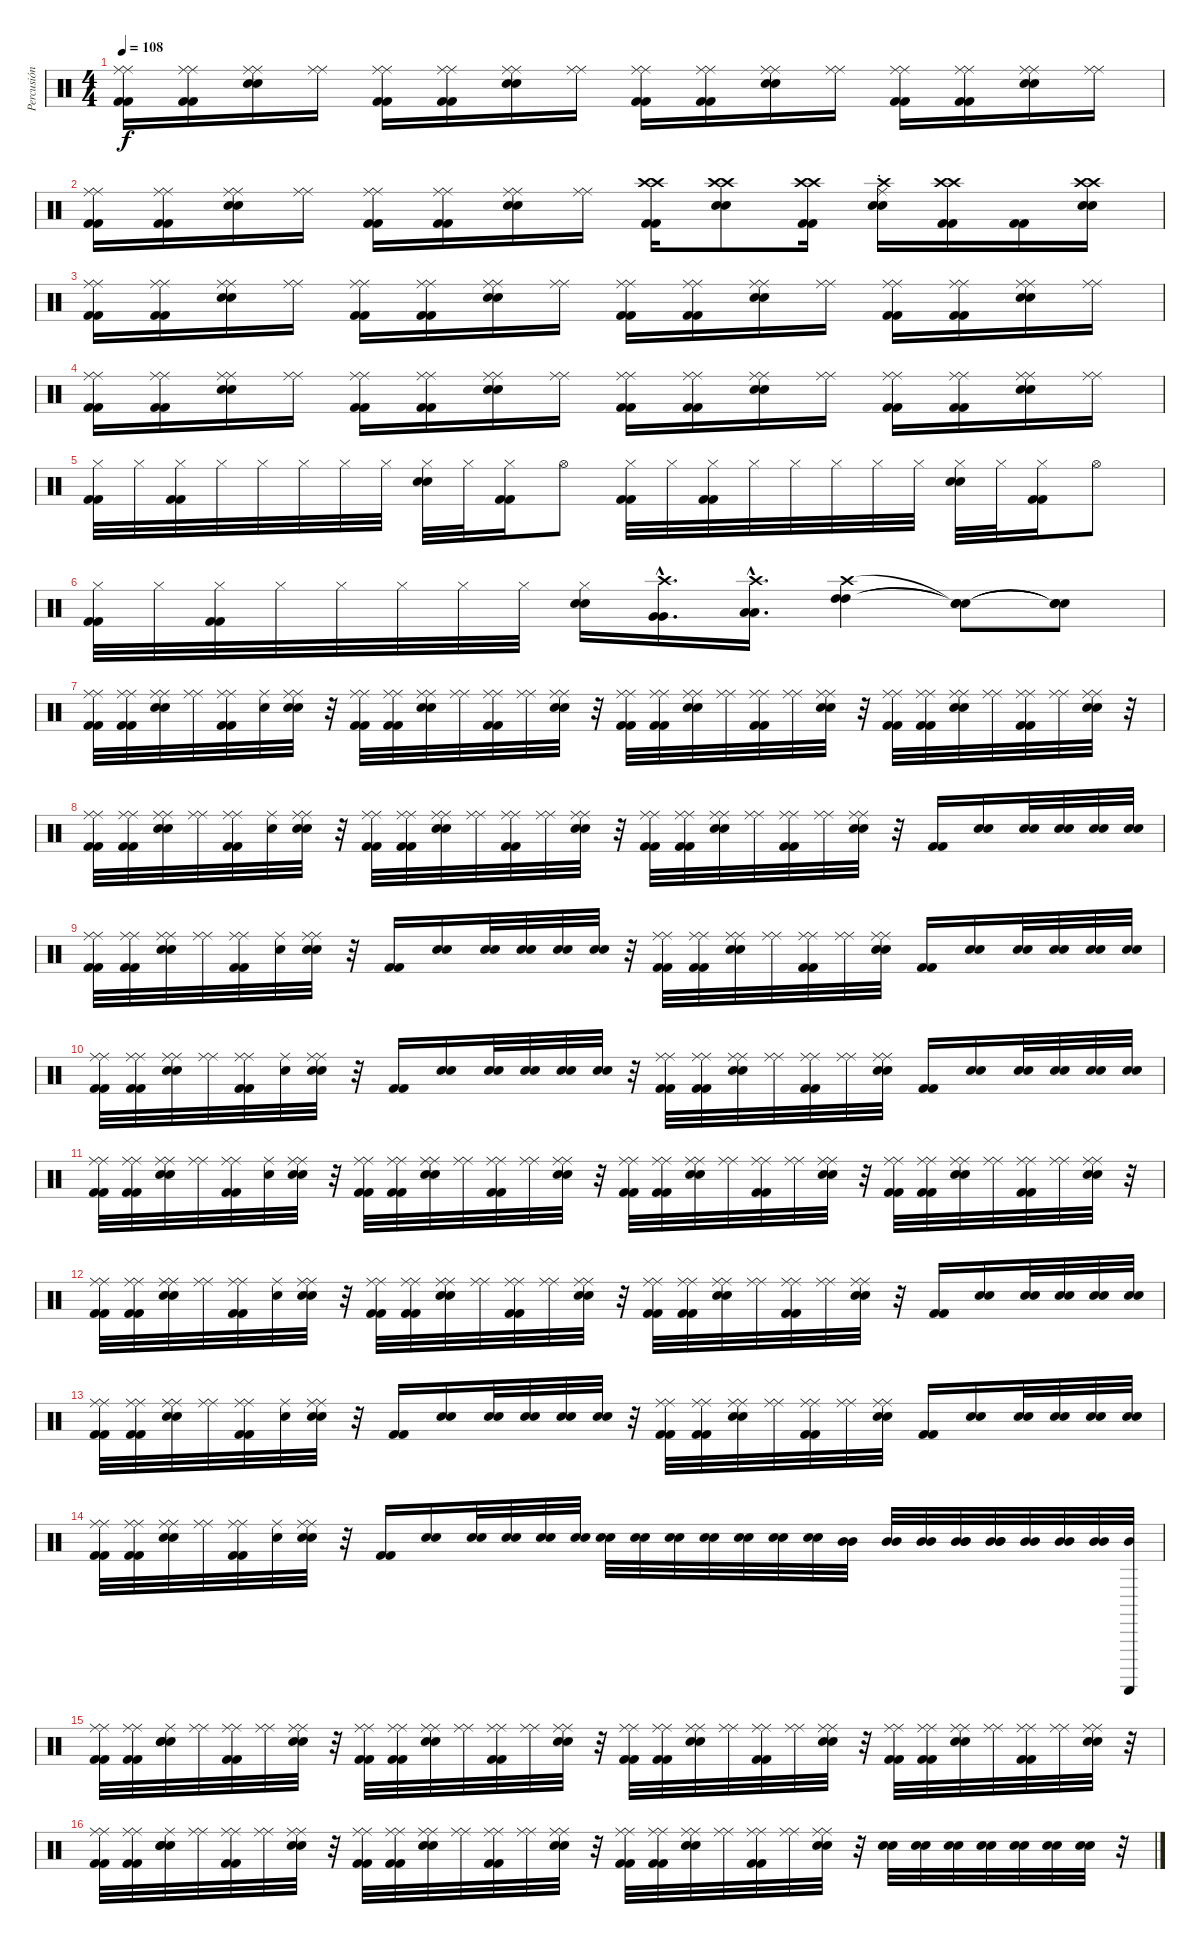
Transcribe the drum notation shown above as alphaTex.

\track ("Percusión" "Percusión") {instrument percussion}
\staff {score}
\articulation defaults
\ts (4 4)
\tempo 108
\clef neutral
\ks c
("Kick (hit) 2" "Kick (hit) 2" "Ride (middle)" "Ride (middle)").16{dy f} ("Kick (hit) 2" "Kick (hit) 2" "Ride (middle)" "Ride (middle)").16 ("Snare (hit) 2" "Snare (hit) 2" "Ride (middle)" "Ride (middle)").16 ("Ride (middle)" "Ride (middle)").16 ("Kick (hit) 2" "Kick (hit) 2" "Ride (middle)" "Ride (middle)").16 ("Kick (hit) 2" "Kick (hit) 2" "Ride (middle)" "Ride (middle)").16 ("Snare (hit) 2" "Snare (hit) 2" "Ride (middle)" "Ride (middle)").16 ("Ride (middle)" "Ride (middle)").16 ("Kick (hit) 2" "Kick (hit) 2" "Ride (middle)" "Ride (middle)").16 ("Kick (hit) 2" "Kick (hit) 2" "Ride (middle)" "Ride (middle)").16 ("Snare (hit) 2" "Snare (hit) 2" "Ride (middle)" "Ride (middle)").16 ("Ride (middle)" "Ride (middle)").16 ("Kick (hit) 2" "Kick (hit) 2" "Ride (middle)" "Ride (middle)").16 ("Kick (hit) 2" "Kick (hit) 2" "Ride (middle)" "Ride (middle)").16 ("Snare (hit) 2" "Snare (hit) 2" "Ride (middle)" "Ride (middle)").16 ("Ride (middle)" "Ride (middle)").16 |
("Kick (hit) 2" "Kick (hit) 2" "Ride (middle)" "Ride (middle)").16 ("Kick (hit) 2" "Kick (hit) 2" "Ride (middle)" "Ride (middle)").16 ("Snare (hit) 2" "Snare (hit) 2" "Ride (middle)" "Ride (middle)").16 ("Ride (middle)" "Ride (middle)").16 ("Kick (hit) 2" "Kick (hit) 2" "Ride (middle)" "Ride (middle)").16 ("Kick (hit) 2" "Kick (hit) 2" "Ride (middle)" "Ride (middle)").16 ("Snare (hit) 2" "Snare (hit) 2" "Ride (middle)" "Ride (middle)").16 ("Ride (middle)" "Ride (middle)").16 ("Kick (hit) 2" "Kick (hit) 2" "Crash high (hit)" "Crash high (hit)").16 ("Snare (hit) 2" "Snare (hit) 2" "Crash high (hit)" "Crash high (hit)").8 ("Kick (hit) 2" "Kick (hit) 2" "Crash high (hit)" "Crash high (hit)").16 ("Snare (hit) 2" "Snare (hit) 2" "Ride (choke)" "Crash high (hit)").16 ("Kick (hit) 2" "Kick (hit) 2" "Crash high (hit)" "Crash high (hit)").16 ("Kick (hit) 2" "Kick (hit) 2").16 ("Snare (hit) 2" "Snare (hit) 2" "Crash high (hit)" "Crash high (hit)").16 |
("Kick (hit) 2" "Kick (hit) 2" "Ride (middle)" "Ride (middle)").16 ("Kick (hit) 2" "Kick (hit) 2" "Ride (middle)" "Ride (middle)").16 ("Snare (hit) 2" "Snare (hit) 2" "Ride (middle)" "Ride (middle)").16 ("Ride (middle)" "Ride (middle)").16 ("Kick (hit) 2" "Kick (hit) 2" "Ride (middle)" "Ride (middle)").16 ("Kick (hit) 2" "Kick (hit) 2" "Ride (middle)" "Ride (middle)").16 ("Snare (hit) 2" "Snare (hit) 2" "Ride (middle)" "Ride (middle)").16 ("Ride (middle)" "Ride (middle)").16 ("Kick (hit) 2" "Kick (hit) 2" "Ride (middle)" "Ride (middle)").16 ("Kick (hit) 2" "Kick (hit) 2" "Ride (middle)" "Ride (middle)").16 ("Snare (hit) 2" "Snare (hit) 2" "Ride (middle)" "Ride (middle)").16 ("Ride (middle)" "Ride (middle)").16 ("Kick (hit) 2" "Kick (hit) 2" "Ride (middle)" "Ride (middle)").16 ("Kick (hit) 2" "Kick (hit) 2" "Ride (middle)" "Ride (middle)").16 ("Snare (hit) 2" "Snare (hit) 2" "Ride (middle)" "Ride (middle)").16 ("Ride (middle)" "Ride (middle)").16 |
("Kick (hit) 2" "Kick (hit) 2" "Ride (middle)" "Ride (middle)").16 ("Kick (hit) 2" "Kick (hit) 2" "Ride (middle)" "Ride (middle)").16 ("Snare (hit) 2" "Snare (hit) 2" "Ride (middle)" "Ride (middle)").16 ("Ride (middle)" "Ride (middle)").16 ("Kick (hit) 2" "Kick (hit) 2" "Ride (middle)" "Ride (middle)").16 ("Kick (hit) 2" "Kick (hit) 2" "Ride (middle)" "Ride (middle)").16 ("Snare (hit) 2" "Snare (hit) 2" "Ride (middle)" "Ride (middle)").16 ("Ride (middle)" "Ride (middle)").16 ("Kick (hit) 2" "Kick (hit) 2" "Ride (middle)" "Ride (middle)").16 ("Kick (hit) 2" "Kick (hit) 2" "Ride (middle)" "Ride (middle)").16 ("Snare (hit) 2" "Snare (hit) 2" "Ride (middle)" "Ride (middle)").16 ("Ride (middle)" "Ride (middle)").16 ("Kick (hit) 2" "Kick (hit) 2" "Ride (middle)" "Ride (middle)").16 ("Kick (hit) 2" "Kick (hit) 2" "Ride (middle)" "Ride (middle)").16 ("Snare (hit) 2" "Snare (hit) 2" "Ride (middle)" "Ride (middle)").16 ("Ride (middle)" "Ride (middle)").16 |
("Hi-Hat (closed)" "Kick (hit) 2" "Kick (hit) 2").32 "Hi-Hat (closed)".32 ("Hi-Hat (closed)" "Kick (hit) 2" "Kick (hit) 2").32 "Hi-Hat (closed)".32 "Hi-Hat (closed)".32 "Hi-Hat (closed)".32 "Hi-Hat (closed)".32 "Hi-Hat (closed)".32 ("Hi-Hat (closed)" "Snare (hit) 2" "Snare (hit) 2").32 "Hi-Hat (closed)".32 ("Hi-Hat (closed)" "Kick (hit) 2" "Kick (hit) 2").16 "Hi-Hat (open)".8 ("Hi-Hat (closed)" "Kick (hit) 2" "Kick (hit) 2").32 "Hi-Hat (closed)".32 ("Hi-Hat (closed)" "Kick (hit) 2" "Kick (hit) 2").32 "Hi-Hat (closed)".32 "Hi-Hat (closed)".32 "Hi-Hat (closed)".32 "Hi-Hat (closed)".32 "Hi-Hat (closed)".32 ("Hi-Hat (closed)" "Snare (hit) 2" "Snare (hit) 2").32 "Hi-Hat (closed)".32 ("Hi-Hat (closed)" "Kick (hit) 2" "Kick (hit) 2").16 "Hi-Hat (open)".8 |
("Hi-Hat (closed)" "Kick (hit) 2" "Kick (hit) 2").32 "Hi-Hat (closed)".32 ("Hi-Hat (closed)" "Kick (hit) 2" "Kick (hit) 2").32 "Hi-Hat (closed)".32 "Hi-Hat (closed)".32 "Hi-Hat (closed)".32 "Hi-Hat (closed)".32 "Hi-Hat (closed)".32 ("Hi-Hat (closed)" "Snare (hit) 2" "Snare (hit) 2").16 ("Very Low Tom (hit)"{hac} "Very Low Tom (hit)"{hac} "Crash high (hit)"{hac}).16{d} ("Low Tom (hit)"{hac} "Low Tom (hit)"{hac} "Crash high (hit)"{hac}).16{d} ("High Tom (hit)" "High Tom (hit)" "Crash high (hit)").4 ("Snare (hit)"{t} "Snare (hit)"{t} "Snare (hit)"{t}).8 ("Snare (hit)"{t} "Snare (hit)"{t} "Snare (hit)"{t}).8 |
("Kick (hit) 2" "Kick (hit) 2" "Ride (middle)" "Ride (middle)").32 ("Kick (hit) 2" "Kick (hit) 2" "Ride (middle)" "Ride (middle)").32 ("Snare (hit) 2" "Snare (hit) 2" "Ride (middle)" "Ride (middle)").32 ("Ride (middle)" "Ride (middle)").32 ("Kick (hit) 2" "Kick (hit) 2" "Ride (middle)" "Ride (middle)").32 ("Ride (middle)" "Snare (hit)").32 ("Snare (hit) 2" "Snare (hit) 2" "Ride (middle)" "Ride (middle)").32 r.32 ("Kick (hit) 2" "Kick (hit) 2" "Ride (middle)" "Ride (middle)").32 ("Kick (hit) 2" "Kick (hit) 2" "Ride (middle)" "Ride (middle)").32 ("Snare (hit) 2" "Snare (hit) 2" "Ride (middle)" "Ride (middle)").32 ("Ride (middle)" "Ride (middle)").32 ("Kick (hit) 2" "Kick (hit) 2" "Ride (middle)" "Ride (middle)").32 ("Ride (middle)" "Ride (middle)").32 ("Snare (hit) 2" "Snare (hit) 2" "Ride (middle)" "Ride (middle)").32 r.32 ("Kick (hit) 2" "Kick (hit) 2" "Ride (middle)" "Ride (middle)").32 ("Kick (hit) 2" "Kick (hit) 2" "Ride (middle)" "Ride (middle)").32 ("Snare (hit) 2" "Snare (hit) 2" "Ride (middle)" "Ride (middle)").32 ("Ride (middle)" "Ride (middle)").32 ("Kick (hit) 2" "Kick (hit) 2" "Ride (middle)" "Ride (middle)").32 ("Ride (middle)" "Ride (middle)").32 ("Snare (hit) 2" "Snare (hit) 2" "Ride (middle)" "Ride (middle)").32 r.32 ("Kick (hit) 2" "Kick (hit) 2" "Ride (middle)" "Ride (middle)").32 ("Kick (hit) 2" "Kick (hit) 2" "Ride (middle)" "Ride (middle)").32 ("Snare (hit) 2" "Snare (hit) 2" "Ride (middle)" "Ride (middle)").32 ("Ride (middle)" "Ride (middle)").32 ("Kick (hit) 2" "Kick (hit) 2" "Ride (middle)" "Ride (middle)").32 ("Ride (middle)" "Ride (middle)").32 ("Snare (hit) 2" "Snare (hit) 2" "Ride (middle)" "Ride (middle)").32 r.32 |
("Kick (hit) 2" "Kick (hit) 2" "Ride (middle)" "Ride (middle)").32 ("Kick (hit) 2" "Kick (hit) 2" "Ride (middle)" "Ride (middle)").32 ("Snare (hit) 2" "Snare (hit) 2" "Ride (middle)" "Ride (middle)").32 ("Ride (middle)" "Ride (middle)").32 ("Kick (hit) 2" "Kick (hit) 2" "Ride (middle)" "Ride (middle)").32 ("Ride (middle)" "Snare (hit)").32 ("Snare (hit) 2" "Snare (hit) 2" "Ride (middle)" "Ride (middle)").32 r.32 ("Kick (hit) 2" "Kick (hit) 2" "Ride (middle)" "Ride (middle)").32 ("Kick (hit) 2" "Kick (hit) 2" "Ride (middle)" "Ride (middle)").32 ("Snare (hit) 2" "Snare (hit) 2" "Ride (middle)" "Ride (middle)").32 ("Ride (middle)" "Ride (middle)").32 ("Kick (hit) 2" "Kick (hit) 2" "Ride (middle)" "Ride (middle)").32 ("Ride (middle)" "Ride (middle)").32 ("Snare (hit) 2" "Snare (hit) 2" "Ride (middle)" "Ride (middle)").32 r.32 ("Kick (hit) 2" "Kick (hit) 2" "Ride (middle)" "Ride (middle)").32 ("Kick (hit) 2" "Kick (hit) 2" "Ride (middle)" "Ride (middle)").32 ("Snare (hit) 2" "Snare (hit) 2" "Ride (middle)" "Ride (middle)").32 ("Ride (middle)" "Ride (middle)").32 ("Kick (hit) 2" "Kick (hit) 2" "Ride (middle)" "Ride (middle)").32 ("Ride (middle)" "Ride (middle)").32 ("Snare (hit) 2" "Snare (hit) 2" "Ride (middle)" "Ride (middle)").32 r.32 ("Kick (hit) 2" "Kick (hit) 2").16 ("Snare (hit) 2" "Snare (hit) 2").16 ("Snare (hit) 2" "Snare (hit) 2").32 ("Snare (hit) 2" "Snare (hit) 2").32 ("Snare (hit) 2" "Snare (hit) 2").32 ("Snare (hit) 2" "Snare (hit) 2").32 |
("Kick (hit) 2" "Kick (hit) 2" "Ride (middle)" "Ride (middle)").32 ("Kick (hit) 2" "Kick (hit) 2" "Ride (middle)" "Ride (middle)").32 ("Snare (hit) 2" "Snare (hit) 2" "Ride (middle)" "Ride (middle)").32 ("Ride (middle)" "Ride (middle)").32 ("Kick (hit) 2" "Kick (hit) 2" "Ride (middle)" "Ride (middle)").32 ("Ride (middle)" "Snare (hit)").32 ("Snare (hit) 2" "Snare (hit) 2" "Ride (middle)" "Ride (middle)").32 r.32 ("Kick (hit) 2" "Kick (hit) 2").16 ("Snare (hit) 2" "Snare (hit) 2").16 ("Snare (hit) 2" "Snare (hit) 2").32 ("Snare (hit) 2" "Snare (hit) 2").32 ("Snare (hit) 2" "Snare (hit) 2").32 ("Snare (hit) 2" "Snare (hit) 2").32 r.32 ("Kick (hit) 2" "Kick (hit) 2" "Ride (middle)" "Ride (middle)").32 ("Kick (hit) 2" "Kick (hit) 2" "Ride (middle)" "Ride (middle)").32 ("Snare (hit) 2" "Snare (hit) 2" "Ride (middle)" "Ride (middle)").32 ("Ride (middle)" "Ride (middle)").32 ("Kick (hit) 2" "Kick (hit) 2" "Ride (middle)" "Ride (middle)").32 ("Ride (middle)" "Ride (middle)").32 ("Snare (hit) 2" "Snare (hit) 2" "Ride (middle)" "Ride (middle)").32 ("Kick (hit) 2" "Kick (hit) 2").16 ("Snare (hit) 2" "Snare (hit) 2").16 ("Snare (hit) 2" "Snare (hit) 2").32 ("Snare (hit) 2" "Snare (hit) 2").32 ("Snare (hit) 2" "Snare (hit) 2").32 ("Snare (hit) 2" "Snare (hit) 2").32 |
("Kick (hit) 2" "Kick (hit) 2" "Ride (middle)" "Ride (middle)").32 ("Kick (hit) 2" "Kick (hit) 2" "Ride (middle)" "Ride (middle)").32 ("Snare (hit) 2" "Snare (hit) 2" "Ride (middle)" "Ride (middle)").32 ("Ride (middle)" "Ride (middle)").32 ("Kick (hit) 2" "Kick (hit) 2" "Ride (middle)" "Ride (middle)").32 ("Ride (middle)" "Snare (hit)").32 ("Snare (hit) 2" "Snare (hit) 2" "Ride (middle)" "Ride (middle)").32 r.32 ("Kick (hit) 2" "Kick (hit) 2").16 ("Snare (hit) 2" "Snare (hit) 2").16 ("Snare (hit) 2" "Snare (hit) 2").32 ("Snare (hit) 2" "Snare (hit) 2").32 ("Snare (hit) 2" "Snare (hit) 2").32 ("Snare (hit) 2" "Snare (hit) 2").32 r.32 ("Kick (hit) 2" "Kick (hit) 2" "Ride (middle)" "Ride (middle)").32 ("Kick (hit) 2" "Kick (hit) 2" "Ride (middle)" "Ride (middle)").32 ("Snare (hit) 2" "Snare (hit) 2" "Ride (middle)" "Ride (middle)").32 ("Ride (middle)" "Ride (middle)").32 ("Kick (hit) 2" "Kick (hit) 2" "Ride (middle)" "Ride (middle)").32 ("Ride (middle)" "Ride (middle)").32 ("Snare (hit) 2" "Snare (hit) 2" "Ride (middle)" "Ride (middle)").32 ("Kick (hit) 2" "Kick (hit) 2").16 ("Snare (hit) 2" "Snare (hit) 2").16 ("Snare (hit) 2" "Snare (hit) 2").32 ("Snare (hit) 2" "Snare (hit) 2").32 ("Snare (hit) 2" "Snare (hit) 2").32 ("Snare (hit) 2" "Snare (hit) 2").32 |
("Kick (hit) 2" "Kick (hit) 2" "Ride (middle)" "Ride (middle)").32 ("Kick (hit) 2" "Kick (hit) 2" "Ride (middle)" "Ride (middle)").32 ("Snare (hit) 2" "Snare (hit) 2" "Ride (middle)" "Ride (middle)").32 ("Ride (middle)" "Ride (middle)").32 ("Kick (hit) 2" "Kick (hit) 2" "Ride (middle)" "Ride (middle)").32 ("Ride (middle)" "Snare (hit)").32 ("Snare (hit) 2" "Snare (hit) 2" "Ride (middle)" "Ride (middle)").32 r.32 ("Kick (hit) 2" "Kick (hit) 2" "Ride (middle)" "Ride (middle)").32 ("Kick (hit) 2" "Kick (hit) 2" "Ride (middle)" "Ride (middle)").32 ("Snare (hit) 2" "Snare (hit) 2" "Ride (middle)" "Ride (middle)").32 ("Ride (middle)" "Ride (middle)").32 ("Kick (hit) 2" "Kick (hit) 2" "Ride (middle)" "Ride (middle)").32 ("Ride (middle)" "Ride (middle)").32 ("Snare (hit) 2" "Snare (hit) 2" "Ride (middle)" "Ride (middle)").32 r.32 ("Kick (hit) 2" "Kick (hit) 2" "Ride (middle)" "Ride (middle)").32 ("Kick (hit) 2" "Kick (hit) 2" "Ride (middle)" "Ride (middle)").32 ("Snare (hit) 2" "Snare (hit) 2" "Ride (middle)" "Ride (middle)").32 ("Ride (middle)" "Ride (middle)").32 ("Kick (hit) 2" "Kick (hit) 2" "Ride (middle)" "Ride (middle)").32 ("Ride (middle)" "Ride (middle)").32 ("Snare (hit) 2" "Snare (hit) 2" "Ride (middle)" "Ride (middle)").32 r.32 ("Kick (hit) 2" "Kick (hit) 2" "Ride (middle)" "Ride (middle)").32 ("Kick (hit) 2" "Kick (hit) 2" "Ride (middle)" "Ride (middle)").32 ("Snare (hit) 2" "Snare (hit) 2" "Ride (middle)" "Ride (middle)").32 ("Ride (middle)" "Ride (middle)").32 ("Kick (hit) 2" "Kick (hit) 2" "Ride (middle)" "Ride (middle)").32 ("Ride (middle)" "Ride (middle)").32 ("Snare (hit) 2" "Snare (hit) 2" "Ride (middle)" "Ride (middle)").32 r.32 |
("Kick (hit) 2" "Kick (hit) 2" "Ride (middle)" "Ride (middle)").32 ("Kick (hit) 2" "Kick (hit) 2" "Ride (middle)" "Ride (middle)").32 ("Snare (hit) 2" "Snare (hit) 2" "Ride (middle)" "Ride (middle)").32 ("Ride (middle)" "Ride (middle)").32 ("Kick (hit) 2" "Kick (hit) 2" "Ride (middle)" "Ride (middle)").32 ("Ride (middle)" "Snare (hit)").32 ("Snare (hit) 2" "Snare (hit) 2" "Ride (middle)" "Ride (middle)").32 r.32 ("Kick (hit) 2" "Kick (hit) 2" "Ride (middle)" "Ride (middle)").32 ("Kick (hit) 2" "Kick (hit) 2" "Ride (middle)" "Ride (middle)").32 ("Snare (hit) 2" "Snare (hit) 2" "Ride (middle)" "Ride (middle)").32 ("Ride (middle)" "Ride (middle)").32 ("Kick (hit) 2" "Kick (hit) 2" "Ride (middle)" "Ride (middle)").32 ("Ride (middle)" "Ride (middle)").32 ("Snare (hit) 2" "Snare (hit) 2" "Ride (middle)" "Ride (middle)").32 r.32 ("Kick (hit) 2" "Kick (hit) 2" "Ride (middle)" "Ride (middle)").32 ("Kick (hit) 2" "Kick (hit) 2" "Ride (middle)" "Ride (middle)").32 ("Snare (hit) 2" "Snare (hit) 2" "Ride (middle)" "Ride (middle)").32 ("Ride (middle)" "Ride (middle)").32 ("Kick (hit) 2" "Kick (hit) 2" "Ride (middle)" "Ride (middle)").32 ("Ride (middle)" "Ride (middle)").32 ("Snare (hit) 2" "Snare (hit) 2" "Ride (middle)" "Ride (middle)").32 r.32 ("Kick (hit) 2" "Kick (hit) 2").16 ("Snare (hit) 2" "Snare (hit) 2").16 ("Snare (hit) 2" "Snare (hit) 2").32 ("Snare (hit) 2" "Snare (hit) 2").32 ("Snare (hit) 2" "Snare (hit) 2").32 ("Snare (hit) 2" "Snare (hit) 2").32 |
("Kick (hit) 2" "Kick (hit) 2" "Ride (middle)" "Ride (middle)").32 ("Kick (hit) 2" "Kick (hit) 2" "Ride (middle)" "Ride (middle)").32 ("Snare (hit) 2" "Snare (hit) 2" "Ride (middle)" "Ride (middle)").32 ("Ride (middle)" "Ride (middle)").32 ("Kick (hit) 2" "Kick (hit) 2" "Ride (middle)" "Ride (middle)").32 ("Ride (middle)" "Snare (hit)").32 ("Snare (hit) 2" "Snare (hit) 2" "Ride (middle)" "Ride (middle)").32 r.32 ("Kick (hit) 2" "Kick (hit) 2").16 ("Snare (hit) 2" "Snare (hit) 2").16 ("Snare (hit) 2" "Snare (hit) 2").32 ("Snare (hit) 2" "Snare (hit) 2").32 ("Snare (hit) 2" "Snare (hit) 2").32 ("Snare (hit) 2" "Snare (hit) 2").32 r.32 ("Kick (hit) 2" "Kick (hit) 2" "Ride (middle)" "Ride (middle)").32 ("Kick (hit) 2" "Kick (hit) 2" "Ride (middle)" "Ride (middle)").32 ("Snare (hit) 2" "Snare (hit) 2" "Ride (middle)" "Ride (middle)").32 ("Ride (middle)" "Ride (middle)").32 ("Kick (hit) 2" "Kick (hit) 2" "Ride (middle)" "Ride (middle)").32 ("Ride (middle)" "Ride (middle)").32 ("Snare (hit) 2" "Snare (hit) 2" "Ride (middle)" "Ride (middle)").32 ("Kick (hit) 2" "Kick (hit) 2").16 ("Snare (hit) 2" "Snare (hit) 2").16 ("Snare (hit) 2" "Snare (hit) 2").32 ("Snare (hit) 2" "Snare (hit) 2").32 ("Snare (hit) 2" "Snare (hit) 2").32 ("Snare (hit) 2" "Snare (hit) 2").32 |
("Kick (hit) 2" "Kick (hit) 2" "Ride (middle)" "Ride (middle)").32 ("Kick (hit) 2" "Kick (hit) 2" "Ride (middle)" "Ride (middle)").32 ("Snare (hit) 2" "Snare (hit) 2" "Ride (middle)" "Ride (middle)").32 ("Ride (middle)" "Ride (middle)").32 ("Kick (hit) 2" "Kick (hit) 2" "Ride (middle)" "Ride (middle)").32 ("Ride (middle)" "Snare (hit)").32 ("Snare (hit) 2" "Snare (hit) 2" "Ride (middle)" "Ride (middle)").32 r.32 ("Kick (hit) 2" "Kick (hit) 2").16 ("Snare (hit) 2" "Snare (hit) 2").16 ("Snare (hit) 2" "Snare (hit) 2").32 ("Snare (hit) 2" "Snare (hit) 2").32 ("Snare (hit) 2" "Snare (hit) 2").32 ("Snare (hit) 2" "Snare (hit) 2").32 ("Snare (hit) 2" "Snare (hit) 2").32 ("Snare (hit) 2" "Snare (hit) 2").32 ("Snare (hit) 2" "Snare (hit) 2").32 ("Snare (hit) 2" "Snare (hit) 2").32 ("Snare (hit) 2" "Snare (hit) 2").32 ("Snare (hit) 2" "Snare (hit) 2").32 ("Snare (hit) 2" "Snare (hit) 2").32 ("Mid Tom (hit)" "Mid Tom (hit)").32 ("Mid Tom (hit)" "Mid Tom (hit)").32 ("Mid Tom (hit)" "Mid Tom (hit)").32 ("Mid Tom (hit)" "Mid Tom (hit)" "Mid Tom (hit)").32 ("Mid Tom (hit)" "Mid Tom (hit)" "Mid Tom (hit)").32 ("Mid Tom (hit)" "Mid Tom (hit)").32 ("Mid Tom (hit)" "Mid Tom (hit)").32 ("Mid Tom (hit)" "Mid Tom (hit)").32 ("Guiro (scrap-return)" "Mid Tom (hit)").32 |
("Kick (hit) 2" "Kick (hit) 2" "Ride (middle)" "Ride (middle)").32 ("Kick (hit) 2" "Kick (hit) 2" "Ride (middle)" "Ride (middle)").32 ("Snare (hit) 2" "Snare (hit) 2" "Ride (middle)" "Snare (hit)").32 ("Ride (middle)" "Ride (middle)").32 ("Kick (hit) 2" "Kick (hit) 2" "Ride (middle)" "Ride (middle)").32 ("Ride (middle)" "Ride (middle)").32 ("Snare (hit) 2" "Snare (hit) 2" "Ride (middle)" "Ride (middle)").32 r.32 ("Kick (hit) 2" "Kick (hit) 2" "Ride (middle)" "Ride (middle)").32 ("Kick (hit) 2" "Kick (hit) 2" "Ride (middle)" "Ride (middle)").32 ("Snare (hit) 2" "Snare (hit) 2" "Ride (middle)" "Ride (middle)").32 ("Ride (middle)" "Ride (middle)").32 ("Kick (hit) 2" "Kick (hit) 2" "Ride (middle)" "Ride (middle)").32 ("Ride (middle)" "Ride (middle)").32 ("Snare (hit) 2" "Snare (hit) 2" "Ride (middle)" "Ride (middle)").32 r.32 ("Kick (hit) 2" "Kick (hit) 2" "Ride (middle)" "Ride (middle)").32 ("Kick (hit) 2" "Kick (hit) 2" "Ride (middle)" "Ride (middle)").32 ("Snare (hit) 2" "Snare (hit) 2" "Ride (middle)" "Ride (middle)").32 ("Ride (middle)" "Ride (middle)").32 ("Kick (hit) 2" "Kick (hit) 2" "Ride (middle)" "Ride (middle)").32 ("Ride (middle)" "Ride (middle)").32 ("Snare (hit) 2" "Snare (hit) 2" "Ride (middle)" "Ride (middle)").32 r.32 ("Kick (hit) 2" "Kick (hit) 2" "Ride (middle)" "Ride (middle)").32 ("Kick (hit) 2" "Kick (hit) 2" "Ride (middle)" "Ride (middle)").32 ("Snare (hit) 2" "Snare (hit) 2" "Ride (middle)" "Ride (middle)").32 ("Ride (middle)" "Ride (middle)").32 ("Kick (hit) 2" "Kick (hit) 2" "Ride (middle)" "Ride (middle)").32 ("Ride (middle)" "Ride (middle)").32 ("Snare (hit) 2" "Snare (hit) 2" "Ride (middle)" "Ride (middle)").32 r.32 |
("Kick (hit) 2" "Kick (hit) 2" "Ride (middle)" "Ride (middle)").32 ("Kick (hit) 2" "Kick (hit) 2" "Ride (middle)" "Ride (middle)").32 ("Snare (hit) 2" "Snare (hit) 2" "Ride (middle)" "Snare (hit)").32 ("Ride (middle)" "Ride (middle)").32 ("Kick (hit) 2" "Kick (hit) 2" "Ride (middle)" "Ride (middle)").32 ("Ride (middle)" "Ride (middle)").32 ("Snare (hit) 2" "Snare (hit) 2" "Ride (middle)" "Ride (middle)").32 r.32 ("Kick (hit) 2" "Kick (hit) 2" "Ride (middle)" "Ride (middle)").32 ("Kick (hit) 2" "Kick (hit) 2" "Ride (middle)" "Ride (middle)").32 ("Snare (hit) 2" "Snare (hit) 2" "Ride (middle)" "Ride (middle)").32 ("Ride (middle)" "Ride (middle)").32 ("Kick (hit) 2" "Kick (hit) 2" "Ride (middle)" "Ride (middle)").32 ("Ride (middle)" "Ride (middle)").32 ("Snare (hit) 2" "Snare (hit) 2" "Ride (middle)" "Ride (middle)").32 r.32 ("Kick (hit) 2" "Kick (hit) 2" "Ride (middle)" "Ride (middle)").32 ("Kick (hit) 2" "Kick (hit) 2" "Ride (middle)" "Ride (middle)").32 ("Snare (hit) 2" "Snare (hit) 2" "Ride (middle)" "Ride (middle)").32 ("Ride (middle)" "Ride (middle)").32 ("Kick (hit) 2" "Kick (hit) 2" "Ride (middle)" "Ride (middle)").32 ("Ride (middle)" "Ride (middle)").32 ("Snare (hit) 2" "Snare (hit) 2" "Ride (middle)" "Ride (middle)").32 r.32 ("Snare (hit) 2" "Snare (hit) 2").32 ("Snare (hit) 2" "Snare (hit) 2").32 ("Snare (hit) 2" "Snare (hit) 2").32 ("Snare (hit) 2" "Snare (hit) 2").32 ("Snare (hit) 2" "Snare (hit) 2").32 ("Snare (hit) 2" "Snare (hit) 2").32 ("Snare (hit) 2" "Snare (hit) 2").32 r.32
